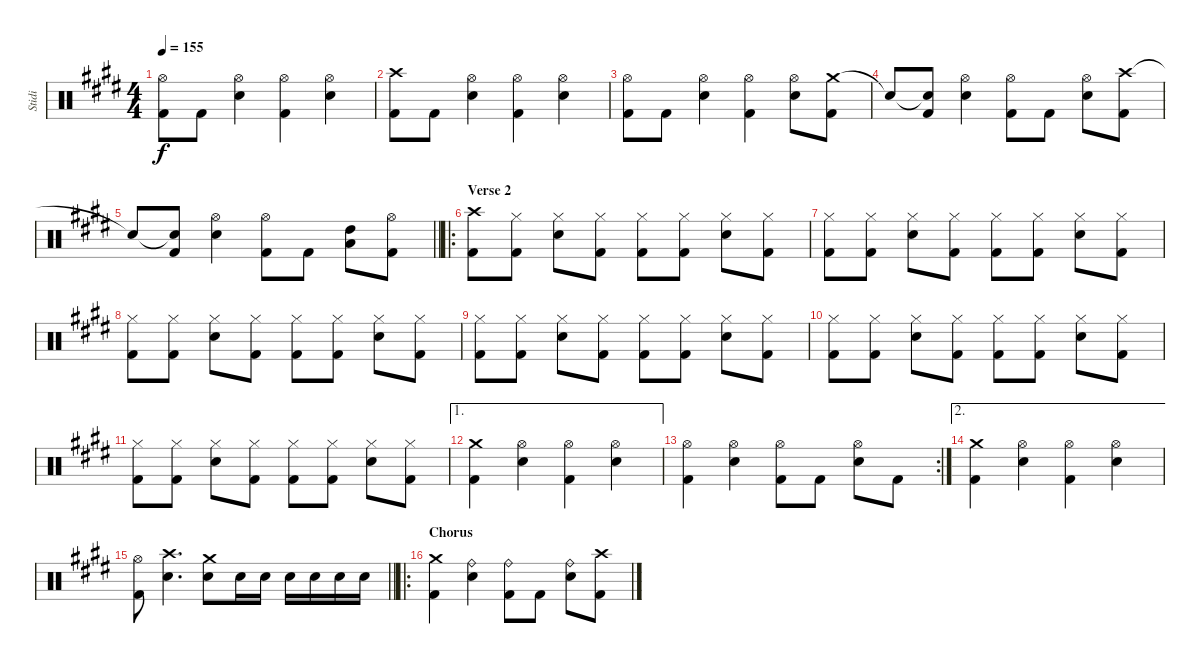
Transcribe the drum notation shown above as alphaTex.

\track ("Stidi" "Stidi") {instrument percussion}
\staff {score}
\articulation defaults
\ts (4 4)
\tempo 155
\clef neutral
\ks e
("Hi-Hat (open)" "Kick (hit) 2").8{dy f} "Kick (hit) 2".8 ("Hi-Hat (open)" "Snare (hit) 2").4 ("Hi-Hat (open)" "Kick (hit) 2").4 ("Hi-Hat (open)" "Snare (hit) 2").4 |
("Crash high (hit)" "Kick (hit) 2").8 "Kick (hit) 2".8 ("Hi-Hat (open)" "Snare (hit) 2").4 ("Hi-Hat (open)" "Kick (hit) 2").4 ("Hi-Hat (open)" "Snare (hit) 2").4 |
("Hi-Hat (open)" "Kick (hit) 2").8 "Kick (hit) 2".8 ("Hi-Hat (open)" "Snare (hit) 2").4 ("Hi-Hat (open)" "Kick (hit) 2").4 ("Hi-Hat (open)" "Snare (hit) 2").8 ("Crash medium (hit)" "Kick (hit) 2").8 |
"Snare (hit)"{t}.8 ("Snare (hit)"{t} "Kick (hit) 2").8 ("Hi-Hat (open)" "Snare (hit) 2").4 ("Hi-Hat (open)" "Kick (hit) 2").8 "Kick (hit) 2".8 ("Hi-Hat (open)" "Snare (hit) 2").8 ("Crash high (hit)" "Kick (hit) 2").8 |
\barLineRight lightlight "Snare (hit)"{t}.8
("Snare (hit)"{t} "Kick (hit) 2").8 ("Hi-Hat (open)" "Snare (hit) 2").4 ("Hi-Hat (open)" "Kick (hit) 2").8 "Kick (hit) 2".8 ("High Tom (hit)" "Low Tom (hit)").8 ("Hi-Hat (open)" "Kick (hit) 2").8 |
\ro
\section ("" "Verse 2")
("Crash high (hit)" "Kick (hit) 2").8 ("Hi-Hat (closed)" "Kick (hit) 2").8 ("Hi-Hat (closed)" "Snare (hit) 2").8 ("Hi-Hat (closed)" "Kick (hit) 2").8 ("Hi-Hat (closed)" "Kick (hit) 2").8 ("Hi-Hat (closed)" "Kick (hit) 2").8 ("Hi-Hat (closed)" "Snare (hit) 2").8 ("Hi-Hat (closed)" "Kick (hit) 2").8 |
("Hi-Hat (closed)" "Kick (hit) 2").8 ("Hi-Hat (closed)" "Kick (hit) 2").8 ("Hi-Hat (closed)" "Snare (hit) 2").8 ("Hi-Hat (closed)" "Kick (hit) 2").8 ("Hi-Hat (closed)" "Kick (hit) 2").8 ("Hi-Hat (closed)" "Kick (hit) 2").8 ("Hi-Hat (closed)" "Snare (hit) 2").8 ("Hi-Hat (closed)" "Kick (hit) 2").8 |
("Hi-Hat (closed)" "Kick (hit) 2").8 ("Hi-Hat (closed)" "Kick (hit) 2").8 ("Hi-Hat (closed)" "Snare (hit) 2").8 ("Hi-Hat (closed)" "Kick (hit) 2").8 ("Hi-Hat (closed)" "Kick (hit) 2").8 ("Hi-Hat (closed)" "Kick (hit) 2").8 ("Hi-Hat (closed)" "Snare (hit) 2").8 ("Hi-Hat (closed)" "Kick (hit) 2").8 |
("Hi-Hat (closed)" "Kick (hit) 2").8 ("Hi-Hat (closed)" "Kick (hit) 2").8 ("Hi-Hat (closed)" "Snare (hit) 2").8 ("Hi-Hat (closed)" "Kick (hit) 2").8 ("Hi-Hat (closed)" "Kick (hit) 2").8 ("Hi-Hat (closed)" "Kick (hit) 2").8 ("Hi-Hat (closed)" "Snare (hit) 2").8 ("Hi-Hat (closed)" "Kick (hit) 2").8 |
("Hi-Hat (closed)" "Kick (hit) 2").8 ("Hi-Hat (closed)" "Kick (hit) 2").8 ("Hi-Hat (closed)" "Snare (hit) 2").8 ("Hi-Hat (closed)" "Kick (hit) 2").8 ("Hi-Hat (closed)" "Kick (hit) 2").8 ("Hi-Hat (closed)" "Kick (hit) 2").8 ("Hi-Hat (closed)" "Snare (hit) 2").8 ("Hi-Hat (closed)" "Kick (hit) 2").8 |
("Hi-Hat (closed)" "Kick (hit) 2").8 ("Hi-Hat (closed)" "Kick (hit) 2").8 ("Hi-Hat (closed)" "Snare (hit) 2").8 ("Hi-Hat (closed)" "Kick (hit) 2").8 ("Hi-Hat (closed)" "Kick (hit) 2").8 ("Hi-Hat (closed)" "Kick (hit) 2").8 ("Hi-Hat (closed)" "Snare (hit) 2").8 ("Hi-Hat (closed)" "Kick (hit) 2").8 |
\ae 1
("Crash medium (hit)" "Kick (hit) 2").4 ("Hi-Hat (open)" "Snare (hit) 2").4 ("Hi-Hat (open)" "Kick (hit) 2").4 ("Hi-Hat (open)" "Snare (hit) 2").4 |
\rc 2
("Hi-Hat (open)" "Kick (hit) 2").4 ("Hi-Hat (open)" "Snare (hit) 2").4 ("Hi-Hat (open)" "Kick (hit) 2").8 "Kick (hit) 2".8 ("Hi-Hat (open)" "Snare (hit) 2").8 "Kick (hit) 2".8 |
\ae 2
("Crash medium (hit)" "Kick (hit) 2").4 ("Hi-Hat (open)" "Snare (hit) 2").4 ("Hi-Hat (open)" "Kick (hit) 2").4 ("Hi-Hat (open)" "Snare (hit) 2").4 |
\barLineRight lightlight
("Hi-Hat (open)" "Kick (hit) 2").8 ("Crash high (hit)" "Snare (hit) 2").4{d} ("Crash medium (hit)" "Snare (hit) 2").8 "Snare (hit) 2".16 "Snare (hit) 2".16 "Snare (hit) 2".16 "Snare (hit) 2".16 "Snare (hit) 2".16 "Snare (hit) 2".16 |
\ro
\section ("" "Chorus")
("Crash medium (hit)" "Kick (hit) 2").4 ("Ride (bell)" "Snare (hit) 2").4 ("Ride (bell)" "Kick (hit) 2").8 "Kick (hit) 2".8 ("Ride (bell)" "Snare (hit) 2").8 ("Crash high (hit)" "Kick (hit) 2").8
